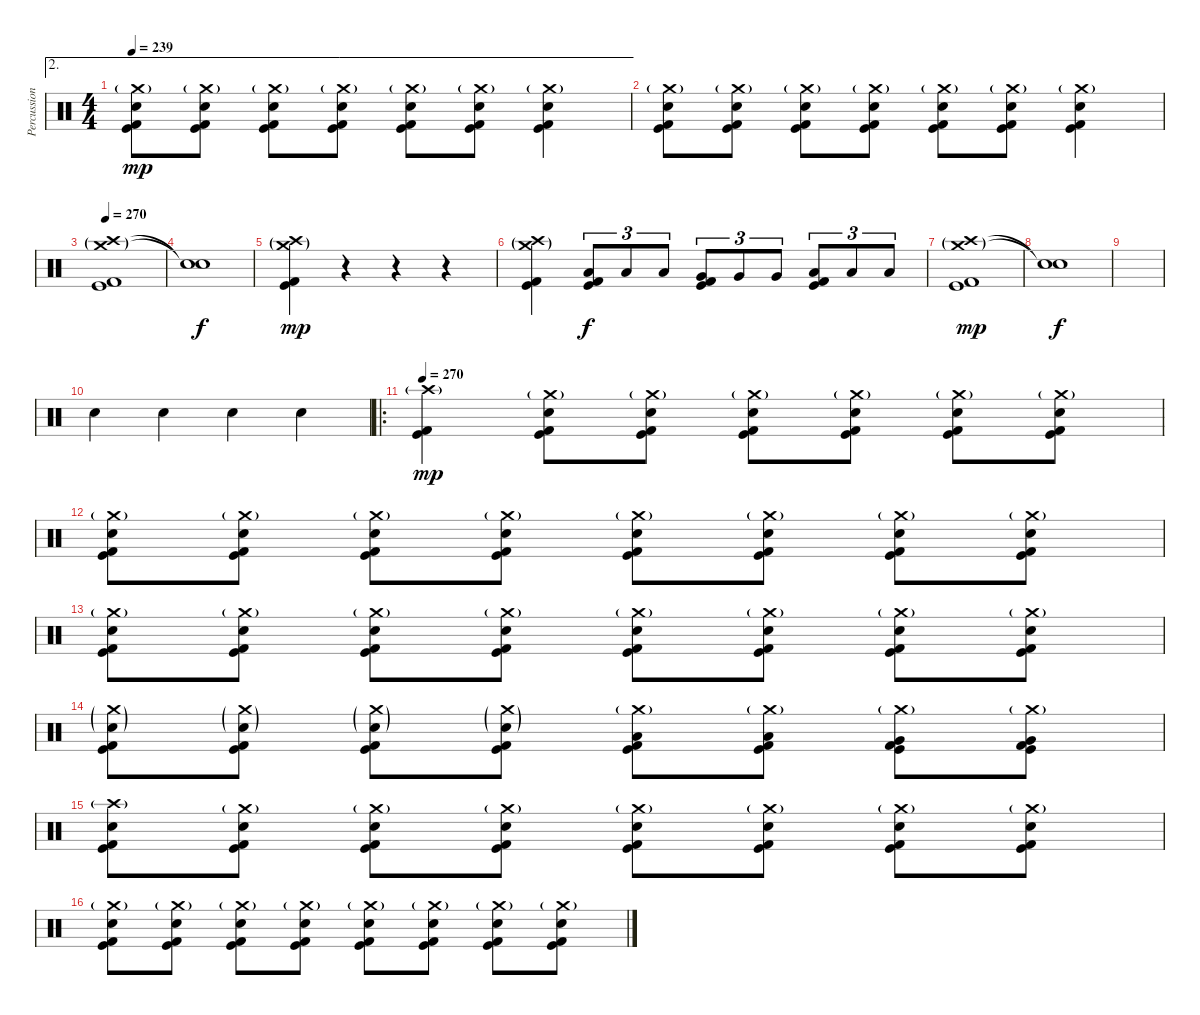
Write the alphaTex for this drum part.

\track ("Percussion" "Percussion") {instrument percussion}
\staff {score}
\articulation defaults
\ae 2
\ts (4 4)
\tempo 239
\clef neutral
\ks c
("Crash medium (hit)"{g} "Electric Snare (hit)" "Kick (hit)" "Kick (hit) 2").8{dy mp} ("Crash medium (hit)"{g} "Electric Snare (hit)" "Kick (hit)" "Kick (hit) 2").8 ("Crash medium (hit)"{g} "Electric Snare (hit)" "Kick (hit)" "Kick (hit) 2").8 ("Crash medium (hit)"{g} "Electric Snare (hit)" "Kick (hit)" "Kick (hit) 2").8 ("Crash medium (hit)"{g} "Electric Snare (hit)" "Kick (hit)" "Kick (hit) 2").8 ("Crash medium (hit)"{g} "Electric Snare (hit)" "Kick (hit)" "Kick (hit) 2").8 ("Crash medium (hit)"{g} "Electric Snare (hit)" "Kick (hit)" "Kick (hit) 2").4 |
("Crash medium (hit)"{g} "Electric Snare (hit)" "Kick (hit)" "Kick (hit) 2").8 ("Crash medium (hit)"{g} "Electric Snare (hit)" "Kick (hit)" "Kick (hit) 2").8 ("Crash medium (hit)"{g} "Electric Snare (hit)" "Kick (hit)" "Kick (hit) 2").8 ("Crash medium (hit)"{g} "Electric Snare (hit)" "Kick (hit)" "Kick (hit) 2").8 ("Crash medium (hit)"{g} "Electric Snare (hit)" "Kick (hit)" "Kick (hit) 2").8 ("Crash medium (hit)"{g} "Electric Snare (hit)" "Kick (hit)" "Kick (hit) 2").8 ("Crash medium (hit)"{g} "Electric Snare (hit)" "Kick (hit)" "Kick (hit) 2").4 |
\tempo 270
("Crash high (hit)"{g} "Crash medium (hit)"{g} "Kick (hit)" "Kick (hit) 2").1 |
("Snare (hit)"{t} "Snare (hit)"{t}).1{dy f} |
("Crash high (hit)"{g} "Crash medium (hit)"{g} "Kick (hit)" "Kick (hit) 2").4{dy mp} r.4 r.4 r.4 |
("Crash high (hit)"{g} "Crash medium (hit)"{g} "Kick (hit)" "Kick (hit) 2").4 ("Low Tom (hit)" "Kick (hit)" "Kick (hit) 2").8{tu (3 2) dy f} "Low Tom (hit)".8{tu (3 2)} "Low Tom (hit)".8{tu (3 2)} ("Very Low Tom (hit)" "Kick (hit)" "Kick (hit) 2").8{tu (3 2)} "Very Low Tom (hit)".8{tu (3 2)} "Very Low Tom (hit)".8{tu (3 2)} ("Low Floor Tom (hit)" "Kick (hit)" "Kick (hit) 2").8{tu (3 2)} "Low Floor Tom (hit)".8{tu (3 2)} "Low Floor Tom (hit)".8{tu (3 2)} |
("Crash high (hit)"{g} "Crash medium (hit)"{g} "Kick (hit)" "Kick (hit) 2").1{dy mp} |
("Snare (hit)"{t} "Snare (hit)"{t}).1{dy f} |
|
"Electric Snare (hit)".4 "Electric Snare (hit)".4 "Electric Snare (hit)".4 "Electric Snare (hit)".4 |
\ro
\tempo 270
("Crash high (hit)"{g} "Kick (hit)" "Kick (hit) 2").4{dy mp} ("Crash medium (hit)"{g} "Electric Snare (hit)" "Kick (hit)" "Kick (hit) 2").8 ("Crash medium (hit)"{g} "Electric Snare (hit)" "Kick (hit)" "Kick (hit) 2").8 ("Crash medium (hit)"{g} "Electric Snare (hit)" "Kick (hit)" "Kick (hit) 2").8 ("Crash medium (hit)"{g} "Electric Snare (hit)" "Kick (hit)" "Kick (hit) 2").8 ("Crash medium (hit)"{g} "Electric Snare (hit)" "Kick (hit)" "Kick (hit) 2").8 ("Crash medium (hit)"{g} "Electric Snare (hit)" "Kick (hit)" "Kick (hit) 2").8 |
("Crash medium (hit)"{g} "Electric Snare (hit)" "Kick (hit)" "Kick (hit) 2").8 ("Crash medium (hit)"{g} "Electric Snare (hit)" "Kick (hit)" "Kick (hit) 2").8 ("Crash medium (hit)"{g} "Electric Snare (hit)" "Kick (hit)" "Kick (hit) 2").8 ("Crash medium (hit)"{g} "Electric Snare (hit)" "Kick (hit)" "Kick (hit) 2").8 ("Crash medium (hit)"{g} "Electric Snare (hit)" "Kick (hit)" "Kick (hit) 2").8 ("Crash medium (hit)"{g} "Electric Snare (hit)" "Kick (hit)" "Kick (hit) 2").8 ("Crash medium (hit)"{g} "Electric Snare (hit)" "Kick (hit)" "Kick (hit) 2").8 ("Crash medium (hit)"{g} "Electric Snare (hit)" "Kick (hit)" "Kick (hit) 2").8 |
("Crash medium (hit)"{g} "Electric Snare (hit)" "Kick (hit)" "Kick (hit) 2").8 ("Crash medium (hit)"{g} "Electric Snare (hit)" "Kick (hit)" "Kick (hit) 2").8 ("Crash medium (hit)"{g} "Electric Snare (hit)" "Kick (hit)" "Kick (hit) 2").8 ("Crash medium (hit)"{g} "Electric Snare (hit)" "Kick (hit)" "Kick (hit) 2").8 ("Crash medium (hit)"{g} "Electric Snare (hit)" "Kick (hit)" "Kick (hit) 2").8 ("Crash medium (hit)"{g} "Electric Snare (hit)" "Kick (hit)" "Kick (hit) 2").8 ("Crash medium (hit)"{g} "Electric Snare (hit)" "Kick (hit)" "Kick (hit) 2").8 ("Crash medium (hit)"{g} "Electric Snare (hit)" "Kick (hit)" "Kick (hit) 2").8 |
("Crash medium (hit)"{g} "Electric Snare (hit)"{g} "Kick (hit)" "Kick (hit) 2").8 ("Crash medium (hit)"{g} "Electric Snare (hit)"{g} "Kick (hit)" "Kick (hit) 2").8 ("Crash medium (hit)"{g} "Electric Snare (hit)"{g} "Kick (hit)" "Kick (hit) 2").8 ("Crash medium (hit)"{g} "Electric Snare (hit)"{g} "Kick (hit)" "Kick (hit) 2").8 ("Crash medium (hit)"{g} "Low Tom (hit)" "Kick (hit)" "Kick (hit) 2").8 ("Crash medium (hit)"{g} "Low Tom (hit)" "Kick (hit)" "Kick (hit) 2").8 ("Crash medium (hit)"{g} "Very Low Tom (hit)" "Kick (hit)" "Kick (hit) 2").8 ("Crash medium (hit)"{g} "Very Low Tom (hit)" "Kick (hit)" "Kick (hit) 2").8 |
("Crash high (hit)"{g} "Electric Snare (hit)" "Kick (hit)" "Kick (hit) 2").8 ("Crash medium (hit)"{g} "Electric Snare (hit)" "Kick (hit)" "Kick (hit) 2").8 ("Crash medium (hit)"{g} "Electric Snare (hit)" "Kick (hit)" "Kick (hit) 2").8 ("Crash medium (hit)"{g} "Electric Snare (hit)" "Kick (hit)" "Kick (hit) 2").8 ("Crash medium (hit)"{g} "Electric Snare (hit)" "Kick (hit)" "Kick (hit) 2").8 ("Crash medium (hit)"{g} "Electric Snare (hit)" "Kick (hit)" "Kick (hit) 2").8 ("Crash medium (hit)"{g} "Electric Snare (hit)" "Kick (hit)" "Kick (hit) 2").8 ("Crash medium (hit)"{g} "Electric Snare (hit)" "Kick (hit)" "Kick (hit) 2").8 |
("Crash medium (hit)"{g} "Electric Snare (hit)" "Kick (hit)" "Kick (hit) 2").8 ("Crash medium (hit)"{g} "Electric Snare (hit)" "Kick (hit)" "Kick (hit) 2").8 ("Crash medium (hit)"{g} "Electric Snare (hit)" "Kick (hit)" "Kick (hit) 2").8 ("Crash medium (hit)"{g} "Electric Snare (hit)" "Kick (hit)" "Kick (hit) 2").8 ("Crash medium (hit)"{g} "Electric Snare (hit)" "Kick (hit)" "Kick (hit) 2").8 ("Crash medium (hit)"{g} "Electric Snare (hit)" "Kick (hit)" "Kick (hit) 2").8 ("Crash medium (hit)"{g} "Electric Snare (hit)" "Kick (hit)" "Kick (hit) 2").8 ("Crash medium (hit)"{g} "Electric Snare (hit)" "Kick (hit)" "Kick (hit) 2").8
